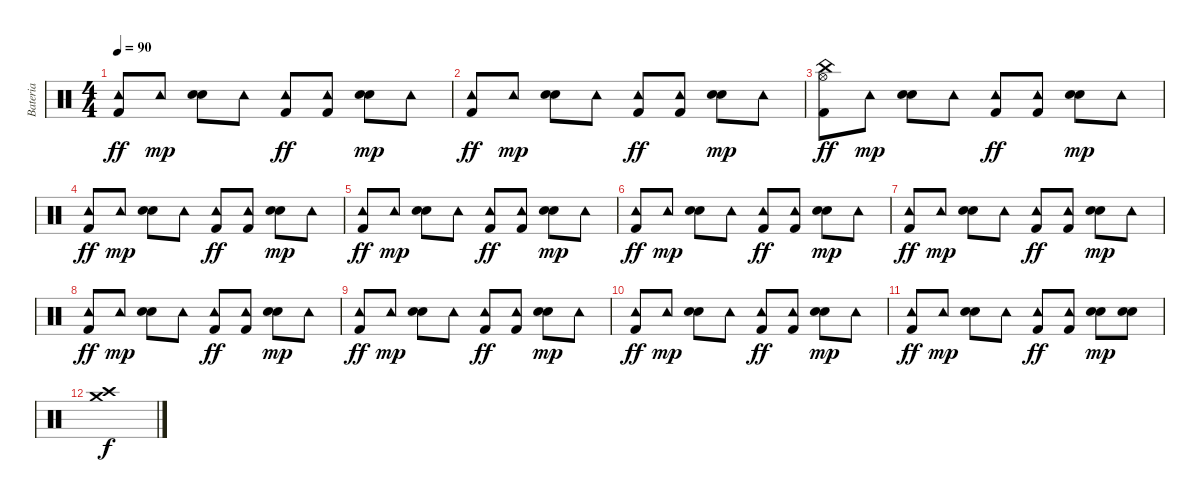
\track ("Bateria" "Bateria") {instrument percussion}
\staff {score}
\articulation defaults
\ts (4 4)
\tempo 90
\clef neutral
\ks c
("Tambourine (hit)" "Kick (hit) 2").8{dy ff} "Tambourine (hit)".8{dy mp} ("Electric Snare (hit)" "Electric Snare (hit)").8 "Tambourine (hit)".8 ("Tambourine (hit)" "Kick (hit) 2").8{dy ff} ("Tambourine (hit)" "Kick (hit) 2").8 ("Electric Snare (hit)" "Electric Snare (hit)").8{dy mp} "Tambourine (hit)".8 |
("Tambourine (hit)" "Kick (hit) 2").8{dy ff} "Tambourine (hit)".8{dy mp} ("Electric Snare (hit)" "Electric Snare (hit)").8 "Tambourine (hit)".8 ("Tambourine (hit)" "Kick (hit) 2").8{dy ff} ("Tambourine (hit)" "Kick (hit) 2").8 ("Electric Snare (hit)" "Electric Snare (hit)").8{dy mp} "Tambourine (hit)".8 |
("Hi-Hat (open)" "China (hit)" "Kick (hit) 2").8{dy ff} "Tambourine (hit)".8{dy mp} ("Electric Snare (hit)" "Electric Snare (hit)").8 "Tambourine (hit)".8 ("Tambourine (hit)" "Kick (hit) 2").8{dy ff} ("Tambourine (hit)" "Kick (hit) 2").8 ("Electric Snare (hit)" "Electric Snare (hit)").8{dy mp} "Tambourine (hit)".8 |
("Tambourine (hit)" "Kick (hit) 2").8{dy ff} "Tambourine (hit)".8{dy mp} ("Electric Snare (hit)" "Electric Snare (hit)").8 "Tambourine (hit)".8 ("Tambourine (hit)" "Kick (hit) 2").8{dy ff} ("Tambourine (hit)" "Kick (hit) 2").8 ("Electric Snare (hit)" "Electric Snare (hit)").8{dy mp} "Tambourine (hit)".8 |
("Tambourine (hit)" "Kick (hit) 2").8{dy ff} "Tambourine (hit)".8{dy mp} ("Electric Snare (hit)" "Electric Snare (hit)").8 "Tambourine (hit)".8 ("Tambourine (hit)" "Kick (hit) 2").8{dy ff} ("Tambourine (hit)" "Kick (hit) 2").8 ("Electric Snare (hit)" "Electric Snare (hit)").8{dy mp} "Tambourine (hit)".8 |
("Tambourine (hit)" "Kick (hit) 2").8{dy ff} "Tambourine (hit)".8{dy mp} ("Electric Snare (hit)" "Electric Snare (hit)").8 "Tambourine (hit)".8 ("Tambourine (hit)" "Kick (hit) 2").8{dy ff} ("Tambourine (hit)" "Kick (hit) 2").8 ("Electric Snare (hit)" "Electric Snare (hit)").8{dy mp} "Tambourine (hit)".8 |
("Tambourine (hit)" "Kick (hit) 2").8{dy ff} "Tambourine (hit)".8{dy mp} ("Electric Snare (hit)" "Electric Snare (hit)").8 "Tambourine (hit)".8 ("Tambourine (hit)" "Kick (hit) 2").8{dy ff} ("Tambourine (hit)" "Kick (hit) 2").8 ("Electric Snare (hit)" "Electric Snare (hit)").8{dy mp} "Tambourine (hit)".8 |
("Tambourine (hit)" "Kick (hit) 2").8{dy ff} "Tambourine (hit)".8{dy mp} ("Electric Snare (hit)" "Electric Snare (hit)").8 "Tambourine (hit)".8 ("Tambourine (hit)" "Kick (hit) 2").8{dy ff} ("Tambourine (hit)" "Kick (hit) 2").8 ("Electric Snare (hit)" "Electric Snare (hit)").8{dy mp} "Tambourine (hit)".8 |
("Tambourine (hit)" "Kick (hit) 2").8{dy ff} "Tambourine (hit)".8{dy mp} ("Electric Snare (hit)" "Electric Snare (hit)").8 "Tambourine (hit)".8 ("Tambourine (hit)" "Kick (hit) 2").8{dy ff} ("Tambourine (hit)" "Kick (hit) 2").8 ("Electric Snare (hit)" "Electric Snare (hit)").8{dy mp} "Tambourine (hit)".8 |
("Tambourine (hit)" "Kick (hit) 2").8{dy ff} "Tambourine (hit)".8{dy mp} ("Electric Snare (hit)" "Electric Snare (hit)").8 "Tambourine (hit)".8 ("Tambourine (hit)" "Kick (hit) 2").8{dy ff} ("Tambourine (hit)" "Kick (hit) 2").8 ("Electric Snare (hit)" "Electric Snare (hit)").8{dy mp} "Tambourine (hit)".8 |
("Tambourine (hit)" "Kick (hit) 2").8{dy ff} "Tambourine (hit)".8{dy mp} ("Electric Snare (hit)" "Electric Snare (hit)").8 "Tambourine (hit)".8 ("Tambourine (hit)" "Kick (hit) 2").8{dy ff} ("Tambourine (hit)" "Kick (hit) 2").8 ("Electric Snare (hit)" "Electric Snare (hit)").8{dy mp} ("Electric Snare (hit)" "Electric Snare (hit)").8 |
("Crash medium (hit)" "Crash high (hit)").1{dy f}
